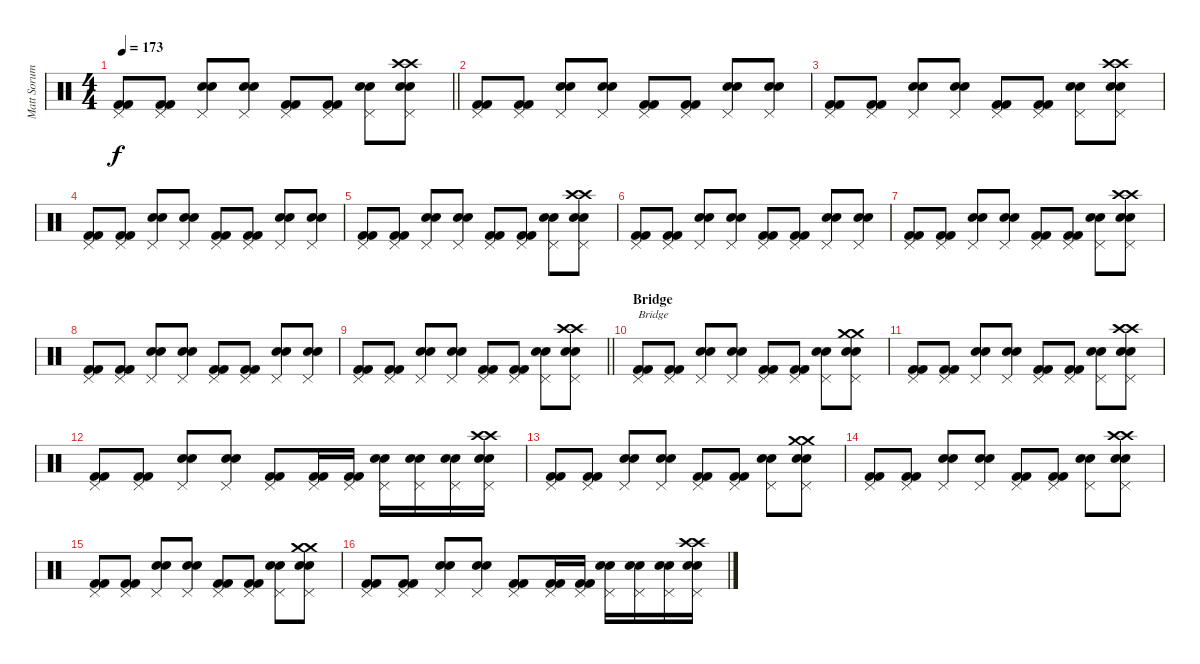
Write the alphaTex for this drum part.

\track ("Matt Sorum" "Matt Sorum") {instrument percussion}
\staff {score}
\articulation defaults
\ts (4 4)
\tempo 173
\clef neutral
\barLineRight lightlight
\ks c
("Pedal Hi-Hat (hit)" "Kick (hit) 2" "Kick (hit) 2").8{dy f} ("Pedal Hi-Hat (hit)" "Kick (hit) 2" "Kick (hit) 2").8 ("Pedal Hi-Hat (hit)" "Snare (hit) 2" "Snare (hit) 2").8 ("Pedal Hi-Hat (hit)" "Snare (hit) 2" "Snare (hit) 2").8 ("Pedal Hi-Hat (hit)" "Kick (hit) 2" "Kick (hit) 2").8 ("Pedal Hi-Hat (hit)" "Kick (hit) 2" "Kick (hit) 2").8 ("Pedal Hi-Hat (hit)" "Snare (hit) 2" "Snare (hit) 2").8 ("Crash high (hit)" "Crash high (hit)" "Pedal Hi-Hat (hit)" "Snare (hit) 2" "Snare (hit) 2").8 |
("Pedal Hi-Hat (hit)" "Kick (hit) 2" "Kick (hit) 2").8 ("Pedal Hi-Hat (hit)" "Kick (hit) 2" "Kick (hit) 2").8 ("Pedal Hi-Hat (hit)" "Snare (hit) 2" "Snare (hit) 2").8 ("Pedal Hi-Hat (hit)" "Snare (hit) 2" "Snare (hit) 2").8 ("Pedal Hi-Hat (hit)" "Kick (hit) 2" "Kick (hit) 2").8 ("Pedal Hi-Hat (hit)" "Kick (hit) 2" "Kick (hit) 2").8 ("Pedal Hi-Hat (hit)" "Snare (hit) 2" "Snare (hit) 2").8 ("Pedal Hi-Hat (hit)" "Snare (hit) 2" "Snare (hit) 2").8 |
("Pedal Hi-Hat (hit)" "Kick (hit) 2" "Kick (hit) 2").8 ("Pedal Hi-Hat (hit)" "Kick (hit) 2" "Kick (hit) 2").8 ("Pedal Hi-Hat (hit)" "Snare (hit) 2" "Snare (hit) 2").8 ("Pedal Hi-Hat (hit)" "Snare (hit) 2" "Snare (hit) 2").8 ("Pedal Hi-Hat (hit)" "Kick (hit) 2" "Kick (hit) 2").8 ("Pedal Hi-Hat (hit)" "Kick (hit) 2" "Kick (hit) 2").8 ("Pedal Hi-Hat (hit)" "Snare (hit) 2" "Snare (hit) 2").8 ("Crash high (hit)" "Crash high (hit)" "Pedal Hi-Hat (hit)" "Snare (hit) 2" "Snare (hit) 2").8 |
("Pedal Hi-Hat (hit)" "Kick (hit) 2" "Kick (hit) 2").8 ("Pedal Hi-Hat (hit)" "Kick (hit) 2" "Kick (hit) 2").8 ("Pedal Hi-Hat (hit)" "Snare (hit) 2" "Snare (hit) 2").8 ("Pedal Hi-Hat (hit)" "Snare (hit) 2" "Snare (hit) 2").8 ("Pedal Hi-Hat (hit)" "Kick (hit) 2" "Kick (hit) 2").8 ("Pedal Hi-Hat (hit)" "Kick (hit) 2" "Kick (hit) 2").8 ("Pedal Hi-Hat (hit)" "Snare (hit) 2" "Snare (hit) 2").8 ("Pedal Hi-Hat (hit)" "Snare (hit) 2" "Snare (hit) 2").8 |
("Pedal Hi-Hat (hit)" "Kick (hit) 2" "Kick (hit) 2").8 ("Pedal Hi-Hat (hit)" "Kick (hit) 2" "Kick (hit) 2").8 ("Pedal Hi-Hat (hit)" "Snare (hit) 2" "Snare (hit) 2").8 ("Pedal Hi-Hat (hit)" "Snare (hit) 2" "Snare (hit) 2").8 ("Pedal Hi-Hat (hit)" "Kick (hit) 2" "Kick (hit) 2").8 ("Pedal Hi-Hat (hit)" "Kick (hit) 2" "Kick (hit) 2").8 ("Pedal Hi-Hat (hit)" "Snare (hit) 2" "Snare (hit) 2").8 ("Crash high (hit)" "Crash high (hit)" "Pedal Hi-Hat (hit)" "Snare (hit) 2" "Snare (hit) 2").8 |
("Pedal Hi-Hat (hit)" "Kick (hit) 2" "Kick (hit) 2").8 ("Pedal Hi-Hat (hit)" "Kick (hit) 2" "Kick (hit) 2").8 ("Pedal Hi-Hat (hit)" "Snare (hit) 2" "Snare (hit) 2").8 ("Pedal Hi-Hat (hit)" "Snare (hit) 2" "Snare (hit) 2").8 ("Pedal Hi-Hat (hit)" "Kick (hit) 2" "Kick (hit) 2").8 ("Pedal Hi-Hat (hit)" "Kick (hit) 2" "Kick (hit) 2").8 ("Pedal Hi-Hat (hit)" "Snare (hit) 2" "Snare (hit) 2").8 ("Pedal Hi-Hat (hit)" "Snare (hit) 2" "Snare (hit) 2").8 |
("Pedal Hi-Hat (hit)" "Kick (hit) 2" "Kick (hit) 2").8 ("Pedal Hi-Hat (hit)" "Kick (hit) 2" "Kick (hit) 2").8 ("Pedal Hi-Hat (hit)" "Snare (hit) 2" "Snare (hit) 2").8 ("Pedal Hi-Hat (hit)" "Snare (hit) 2" "Snare (hit) 2").8 ("Pedal Hi-Hat (hit)" "Kick (hit) 2" "Kick (hit) 2").8 ("Pedal Hi-Hat (hit)" "Kick (hit) 2" "Kick (hit) 2").8 ("Pedal Hi-Hat (hit)" "Snare (hit) 2" "Snare (hit) 2").8 ("Crash high (hit)" "Crash high (hit)" "Pedal Hi-Hat (hit)" "Snare (hit) 2" "Snare (hit) 2").8 |
("Pedal Hi-Hat (hit)" "Kick (hit) 2" "Kick (hit) 2").8 ("Pedal Hi-Hat (hit)" "Kick (hit) 2" "Kick (hit) 2").8 ("Pedal Hi-Hat (hit)" "Snare (hit) 2" "Snare (hit) 2").8 ("Pedal Hi-Hat (hit)" "Snare (hit) 2" "Snare (hit) 2").8 ("Pedal Hi-Hat (hit)" "Kick (hit) 2" "Kick (hit) 2").8 ("Pedal Hi-Hat (hit)" "Kick (hit) 2" "Kick (hit) 2").8 ("Pedal Hi-Hat (hit)" "Snare (hit) 2" "Snare (hit) 2").8 ("Pedal Hi-Hat (hit)" "Snare (hit) 2" "Snare (hit) 2").8 |
\barLineRight lightlight
("Pedal Hi-Hat (hit)" "Kick (hit) 2" "Kick (hit) 2").8 ("Pedal Hi-Hat (hit)" "Kick (hit) 2" "Kick (hit) 2").8 ("Pedal Hi-Hat (hit)" "Snare (hit) 2" "Snare (hit) 2").8 ("Pedal Hi-Hat (hit)" "Snare (hit) 2" "Snare (hit) 2").8 ("Pedal Hi-Hat (hit)" "Kick (hit) 2" "Kick (hit) 2").8 ("Pedal Hi-Hat (hit)" "Kick (hit) 2" "Kick (hit) 2").8 ("Pedal Hi-Hat (hit)" "Snare (hit) 2" "Snare (hit) 2").8 ("Crash high (hit)" "Crash high (hit)" "Pedal Hi-Hat (hit)" "Snare (hit) 2" "Snare (hit) 2").8 |
\section ("" "Bridge")
("Pedal Hi-Hat (hit)" "Kick (hit) 2" "Kick (hit) 2").8{txt "Bridge"} ("Pedal Hi-Hat (hit)" "Kick (hit) 2" "Kick (hit) 2").8 ("Pedal Hi-Hat (hit)" "Snare (hit) 2" "Snare (hit) 2").8 ("Pedal Hi-Hat (hit)" "Snare (hit) 2" "Snare (hit) 2").8 ("Pedal Hi-Hat (hit)" "Kick (hit) 2" "Kick (hit) 2").8 ("Pedal Hi-Hat (hit)" "Kick (hit) 2" "Kick (hit) 2").8 ("Pedal Hi-Hat (hit)" "Snare (hit) 2" "Snare (hit) 2").8 ("Crash medium (hit)" "Crash medium (hit)" "Pedal Hi-Hat (hit)" "Snare (hit) 2" "Snare (hit) 2").8 |
("Pedal Hi-Hat (hit)" "Kick (hit) 2" "Kick (hit) 2").8 ("Pedal Hi-Hat (hit)" "Kick (hit) 2" "Kick (hit) 2").8 ("Pedal Hi-Hat (hit)" "Snare (hit) 2" "Snare (hit) 2").8 ("Pedal Hi-Hat (hit)" "Snare (hit) 2" "Snare (hit) 2").8 ("Pedal Hi-Hat (hit)" "Kick (hit) 2" "Kick (hit) 2").8 ("Pedal Hi-Hat (hit)" "Kick (hit) 2" "Kick (hit) 2").8 ("Pedal Hi-Hat (hit)" "Snare (hit) 2" "Snare (hit) 2").8 ("Crash high (hit)" "Crash high (hit)" "Pedal Hi-Hat (hit)" "Snare (hit) 2" "Snare (hit) 2").8 |
("Pedal Hi-Hat (hit)" "Kick (hit) 2" "Kick (hit) 2").8 ("Pedal Hi-Hat (hit)" "Kick (hit) 2" "Kick (hit) 2").8 ("Pedal Hi-Hat (hit)" "Snare (hit) 2" "Snare (hit) 2").8 ("Pedal Hi-Hat (hit)" "Snare (hit) 2" "Snare (hit) 2").8 ("Pedal Hi-Hat (hit)" "Kick (hit) 2" "Kick (hit) 2").8 ("Pedal Hi-Hat (hit)" "Kick (hit) 2" "Kick (hit) 2").16 ("Pedal Hi-Hat (hit)" "Kick (hit) 2" "Kick (hit) 2").16 ("Pedal Hi-Hat (hit)" "Snare (hit) 2" "Snare (hit) 2").16 ("Pedal Hi-Hat (hit)" "Snare (hit) 2" "Snare (hit) 2").16 ("Pedal Hi-Hat (hit)" "Snare (hit) 2" "Snare (hit) 2").16 ("Crash high (hit)" "Crash high (hit)" "Pedal Hi-Hat (hit)" "Snare (hit) 2" "Snare (hit) 2").16 |
("Pedal Hi-Hat (hit)" "Kick (hit) 2" "Kick (hit) 2").8 ("Pedal Hi-Hat (hit)" "Kick (hit) 2" "Kick (hit) 2").8 ("Pedal Hi-Hat (hit)" "Snare (hit) 2" "Snare (hit) 2").8 ("Pedal Hi-Hat (hit)" "Snare (hit) 2" "Snare (hit) 2").8 ("Pedal Hi-Hat (hit)" "Kick (hit) 2" "Kick (hit) 2").8 ("Pedal Hi-Hat (hit)" "Kick (hit) 2" "Kick (hit) 2").8 ("Pedal Hi-Hat (hit)" "Snare (hit) 2" "Snare (hit) 2").8 ("Crash medium (hit)" "Crash medium (hit)" "Pedal Hi-Hat (hit)" "Snare (hit) 2" "Snare (hit) 2").8 |
("Pedal Hi-Hat (hit)" "Kick (hit) 2" "Kick (hit) 2").8 ("Pedal Hi-Hat (hit)" "Kick (hit) 2" "Kick (hit) 2").8 ("Pedal Hi-Hat (hit)" "Snare (hit) 2" "Snare (hit) 2").8 ("Pedal Hi-Hat (hit)" "Snare (hit) 2" "Snare (hit) 2").8 ("Pedal Hi-Hat (hit)" "Kick (hit) 2" "Kick (hit) 2").8 ("Pedal Hi-Hat (hit)" "Kick (hit) 2" "Kick (hit) 2").8 ("Pedal Hi-Hat (hit)" "Snare (hit) 2" "Snare (hit) 2").8 ("Crash high (hit)" "Crash high (hit)" "Pedal Hi-Hat (hit)" "Snare (hit) 2" "Snare (hit) 2").8 |
("Pedal Hi-Hat (hit)" "Kick (hit) 2" "Kick (hit) 2").8 ("Pedal Hi-Hat (hit)" "Kick (hit) 2" "Kick (hit) 2").8 ("Pedal Hi-Hat (hit)" "Snare (hit) 2" "Snare (hit) 2").8 ("Pedal Hi-Hat (hit)" "Snare (hit) 2" "Snare (hit) 2").8 ("Pedal Hi-Hat (hit)" "Kick (hit) 2" "Kick (hit) 2").8 ("Pedal Hi-Hat (hit)" "Kick (hit) 2" "Kick (hit) 2").8 ("Pedal Hi-Hat (hit)" "Snare (hit) 2" "Snare (hit) 2").8 ("Crash medium (hit)" "Crash medium (hit)" "Pedal Hi-Hat (hit)" "Snare (hit) 2" "Snare (hit) 2").8 |
("Pedal Hi-Hat (hit)" "Kick (hit) 2" "Kick (hit) 2").8 ("Pedal Hi-Hat (hit)" "Kick (hit) 2" "Kick (hit) 2").8 ("Pedal Hi-Hat (hit)" "Snare (hit) 2" "Snare (hit) 2").8 ("Pedal Hi-Hat (hit)" "Snare (hit) 2" "Snare (hit) 2").8 ("Pedal Hi-Hat (hit)" "Kick (hit) 2" "Kick (hit) 2").8 ("Pedal Hi-Hat (hit)" "Kick (hit) 2" "Kick (hit) 2").16 ("Pedal Hi-Hat (hit)" "Kick (hit) 2" "Kick (hit) 2").16 ("Pedal Hi-Hat (hit)" "Snare (hit) 2" "Snare (hit) 2").16 ("Pedal Hi-Hat (hit)" "Snare (hit) 2" "Snare (hit) 2").16 ("Pedal Hi-Hat (hit)" "Snare (hit) 2" "Snare (hit) 2").16 ("Crash high (hit)" "Crash high (hit)" "Pedal Hi-Hat (hit)" "Snare (hit) 2" "Snare (hit) 2").16
